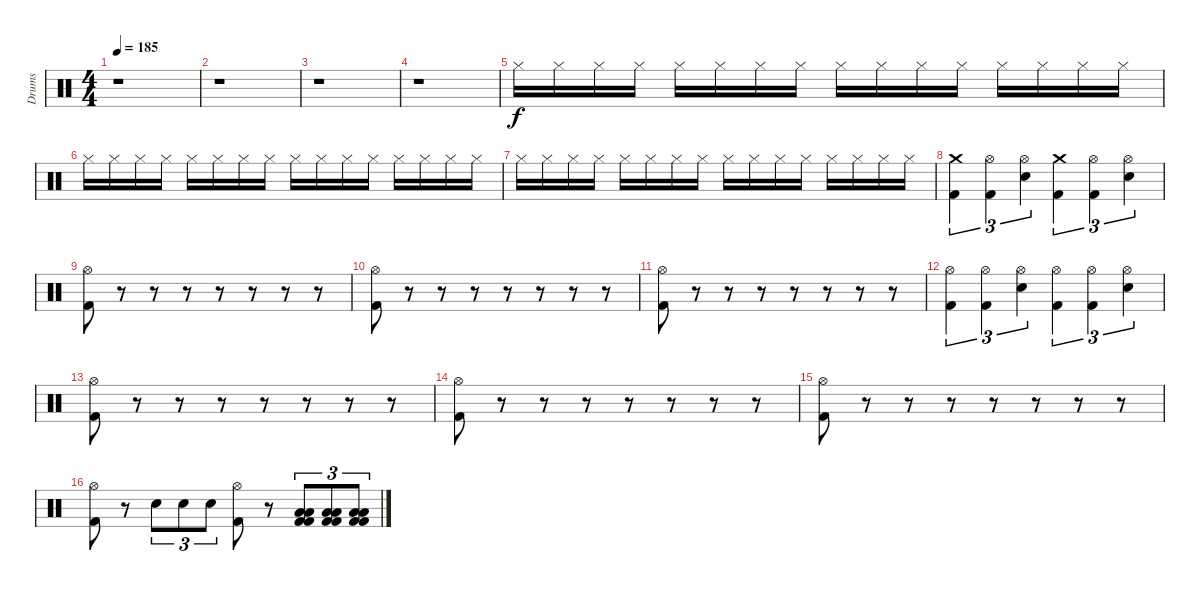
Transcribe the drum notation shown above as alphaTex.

\track ("Drums" "Drums") {instrument percussion}
\staff {score}
\articulation defaults
\ts (4 4)
\tempo 185
\clef neutral
\ks c
r.1{dy f} |
r.1 |
r.1 |
r.1 |
"Hi-Hat (closed)".16 "Hi-Hat (closed)".16 "Hi-Hat (closed)".16 "Hi-Hat (closed)".16 "Hi-Hat (closed)".16 "Hi-Hat (closed)".16 "Hi-Hat (closed)".16 "Hi-Hat (closed)".16 "Hi-Hat (closed)".16 "Hi-Hat (closed)".16 "Hi-Hat (closed)".16 "Hi-Hat (closed)".16 "Hi-Hat (closed)".16 "Hi-Hat (closed)".16 "Hi-Hat (closed)".16 "Hi-Hat (closed)".16 |
"Hi-Hat (closed)".16 "Hi-Hat (closed)".16 "Hi-Hat (closed)".16 "Hi-Hat (closed)".16 "Hi-Hat (closed)".16 "Hi-Hat (closed)".16 "Hi-Hat (closed)".16 "Hi-Hat (closed)".16 "Hi-Hat (closed)".16 "Hi-Hat (closed)".16 "Hi-Hat (closed)".16 "Hi-Hat (closed)".16 "Hi-Hat (closed)".16 "Hi-Hat (closed)".16 "Hi-Hat (closed)".16 "Hi-Hat (closed)".16 |
"Hi-Hat (closed)".16 "Hi-Hat (closed)".16 "Hi-Hat (closed)".16 "Hi-Hat (closed)".16 "Hi-Hat (closed)".16 "Hi-Hat (closed)".16 "Hi-Hat (closed)".16 "Hi-Hat (closed)".16 "Hi-Hat (closed)".16 "Hi-Hat (closed)".16 "Hi-Hat (closed)".16 "Hi-Hat (closed)".16 "Hi-Hat (closed)".16 "Hi-Hat (closed)".16 "Hi-Hat (closed)".16 "Hi-Hat (closed)".16 |
("Crash medium (hit)" "Kick (hit) 2").4{tu (3 2)} ("Hi-Hat (open)" "Kick (hit) 2").4{tu (3 2)} ("Hi-Hat (open)" "Snare (hit) 2").4{tu (3 2)} ("Crash medium (hit)" "Kick (hit) 2").4{tu (3 2)} ("Hi-Hat (open)" "Kick (hit) 2").4{tu (3 2)} ("Hi-Hat (open)" "Snare (hit) 2").4{tu (3 2)} |
("Hi-Hat (open)" "Kick (hit) 2").8 r.8 r.8 r.8 r.8 r.8 r.8 r.8 |
("Hi-Hat (open)" "Kick (hit) 2").8 r.8 r.8 r.8 r.8 r.8 r.8 r.8 |
("Hi-Hat (open)" "Kick (hit) 2").8 r.8 r.8 r.8 r.8 r.8 r.8 r.8 |
("Hi-Hat (open)" "Kick (hit) 2").4{tu (3 2)} ("Hi-Hat (open)" "Kick (hit) 2").4{tu (3 2)} ("Hi-Hat (open)" "Snare (hit) 2").4{tu (3 2)} ("Hi-Hat (open)" "Kick (hit) 2").4{tu (3 2)} ("Hi-Hat (open)" "Kick (hit) 2").4{tu (3 2)} ("Hi-Hat (open)" "Snare (hit) 2").4{tu (3 2)} |
("Hi-Hat (open)" "Kick (hit) 2").8 r.8 r.8 r.8 r.8 r.8 r.8 r.8 |
("Hi-Hat (open)" "Kick (hit) 2").8 r.8 r.8 r.8 r.8 r.8 r.8 r.8 |
("Hi-Hat (open)" "Kick (hit) 2").8 r.8 r.8 r.8 r.8 r.8 r.8 r.8 |
("Hi-Hat (open)" "Kick (hit) 2").8 r.8 "Snare (hit) 2".8{tu (3 2)} "Snare (hit) 2".8{tu (3 2)} "Snare (hit) 2".8{tu (3 2)} ("Hi-Hat (open)" "Kick (hit) 2").8 r.8 ("Kick (hit) 2" "Kick (hit) 2" "Low Tom (hit)" "Low Tom (hit)").8{tu (3 2)} ("Kick (hit) 2" "Kick (hit) 2" "Low Tom (hit)" "Low Tom (hit)").8{tu (3 2)} ("Kick (hit) 2" "Kick (hit) 2" "Low Tom (hit)" "Low Tom (hit)").8{tu (3 2)}
